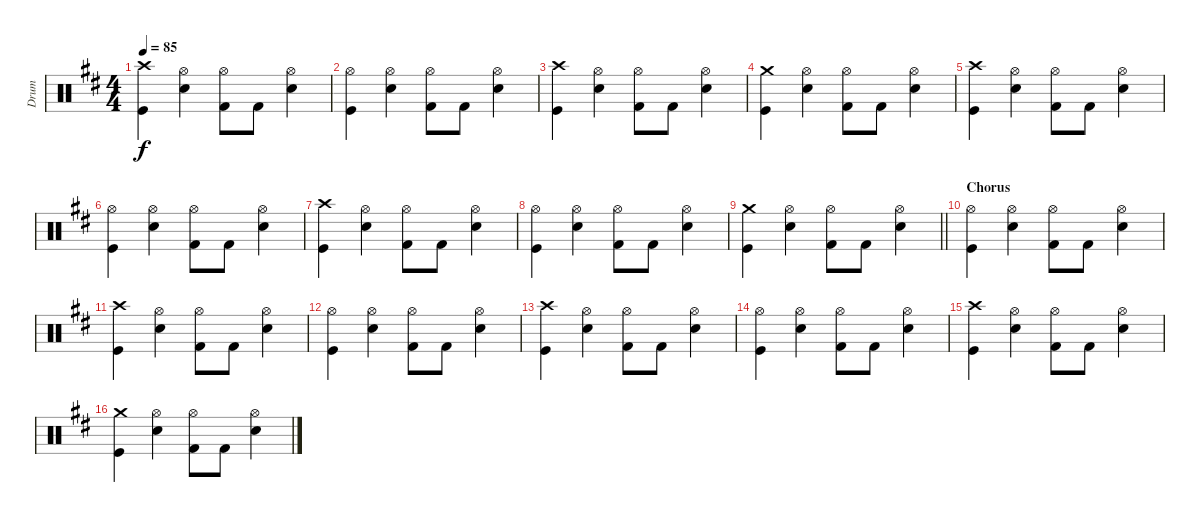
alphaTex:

\track ("Drum" "Drum") {instrument percussion}
\staff {score}
\articulation defaults
\ts (4 4)
\tempo 85
\clef neutral
\ks d
("Kick (hit)" "Crash high (hit)").4{dy f} ("Electric Snare (hit)" "Hi-Hat (open)").4 ("Kick (hit) 2" "Hi-Hat (open)").8 "Kick (hit) 2".8 ("Snare (hit) 2" "Hi-Hat (open)").4 |
("Kick (hit)" "Hi-Hat (open)").4 ("Electric Snare (hit)" "Hi-Hat (open)").4 ("Kick (hit) 2" "Hi-Hat (open)").8 "Kick (hit) 2".8 ("Snare (hit) 2" "Hi-Hat (open)").4 |
("Kick (hit)" "Crash high (hit)").4 ("Electric Snare (hit)" "Hi-Hat (open)").4 ("Kick (hit) 2" "Hi-Hat (open)").8 "Kick (hit) 2".8 ("Snare (hit) 2" "Hi-Hat (open)").4 |
("Kick (hit)" "Crash medium (hit)").4 ("Electric Snare (hit)" "Hi-Hat (open)").4 ("Kick (hit) 2" "Hi-Hat (open)").8 "Kick (hit) 2".8 ("Snare (hit) 2" "Hi-Hat (open)").4 |
("Kick (hit)" "Crash high (hit)").4 ("Electric Snare (hit)" "Hi-Hat (open)").4 ("Kick (hit) 2" "Hi-Hat (open)").8 "Kick (hit) 2".8 ("Snare (hit) 2" "Hi-Hat (open)").4 |
("Kick (hit)" "Hi-Hat (open)").4 ("Electric Snare (hit)" "Hi-Hat (open)").4 ("Kick (hit) 2" "Hi-Hat (open)").8 "Kick (hit) 2".8 ("Snare (hit) 2" "Hi-Hat (open)").4 |
("Kick (hit)" "Crash high (hit)").4 ("Electric Snare (hit)" "Hi-Hat (open)").4 ("Kick (hit) 2" "Hi-Hat (open)").8 "Kick (hit) 2".8 ("Snare (hit) 2" "Hi-Hat (open)").4 |
("Kick (hit)" "Hi-Hat (open)").4 ("Electric Snare (hit)" "Hi-Hat (open)").4 ("Kick (hit) 2" "Hi-Hat (open)").8 "Kick (hit) 2".8 ("Snare (hit) 2" "Hi-Hat (open)").4 |
\barLineRight lightlight
("Kick (hit)" "Crash medium (hit)").4 ("Electric Snare (hit)" "Hi-Hat (open)").4 ("Kick (hit) 2" "Hi-Hat (open)").8 "Kick (hit) 2".8 ("Snare (hit) 2" "Hi-Hat (open)").4 |
\section ("" "Chorus")
("Kick (hit)" "Hi-Hat (open)").4 ("Electric Snare (hit)" "Hi-Hat (open)").4 ("Kick (hit) 2" "Hi-Hat (open)").8 "Kick (hit) 2".8 ("Snare (hit) 2" "Hi-Hat (open)").4 |
("Kick (hit)" "Crash high (hit)").4 ("Electric Snare (hit)" "Hi-Hat (open)").4 ("Kick (hit) 2" "Hi-Hat (open)").8 "Kick (hit) 2".8 ("Snare (hit) 2" "Hi-Hat (open)").4 |
("Kick (hit)" "Hi-Hat (open)").4 ("Electric Snare (hit)" "Hi-Hat (open)").4 ("Kick (hit) 2" "Hi-Hat (open)").8 "Kick (hit) 2".8 ("Snare (hit) 2" "Hi-Hat (open)").4 |
("Kick (hit)" "Crash high (hit)").4 ("Electric Snare (hit)" "Hi-Hat (open)").4 ("Kick (hit) 2" "Hi-Hat (open)").8 "Kick (hit) 2".8 ("Snare (hit) 2" "Hi-Hat (open)").4 |
("Kick (hit)" "Hi-Hat (open)").4 ("Electric Snare (hit)" "Hi-Hat (open)").4 ("Kick (hit) 2" "Hi-Hat (open)").8 "Kick (hit) 2".8 ("Snare (hit) 2" "Hi-Hat (open)").4 |
("Kick (hit)" "Crash high (hit)").4 ("Electric Snare (hit)" "Hi-Hat (open)").4 ("Kick (hit) 2" "Hi-Hat (open)").8 "Kick (hit) 2".8 ("Snare (hit) 2" "Hi-Hat (open)").4 |
("Kick (hit)" "Crash medium (hit)").4 ("Electric Snare (hit)" "Hi-Hat (open)").4 ("Kick (hit) 2" "Hi-Hat (open)").8 "Kick (hit) 2".8 ("Snare (hit) 2" "Hi-Hat (open)").4
